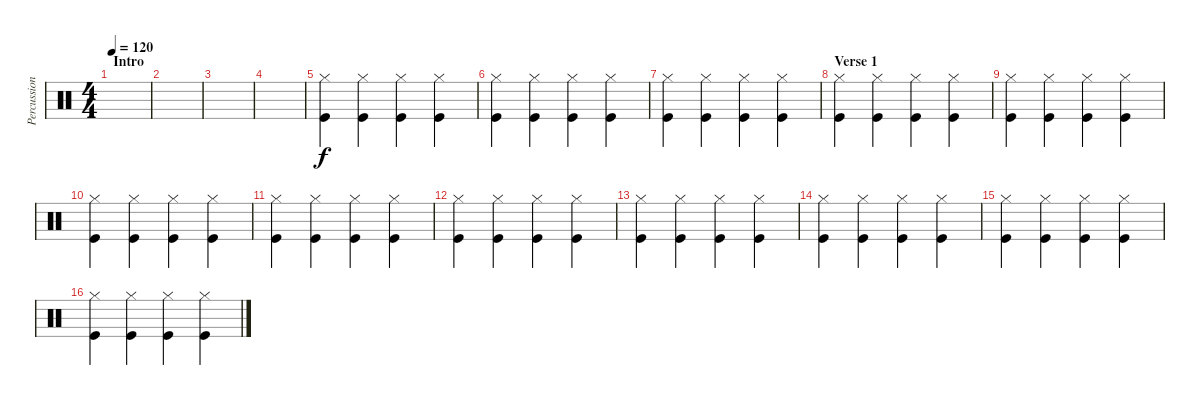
\track ("Percussion" "Percussion") {instrument percussion}
\staff {score}
\articulation defaults
\ts (4 4)
\section ("" "Intro")
\tempo 120
\clef neutral
\ks c
|
|
|
|
("Hi-Hat (closed)" "Kick (hit)").4 ("Hi-Hat (closed)" "Kick (hit)").4 ("Hi-Hat (closed)" "Kick (hit)").4 ("Hi-Hat (closed)" "Kick (hit)").4 |
("Kick (hit)" "Hi-Hat (closed)").4 ("Kick (hit)" "Hi-Hat (closed)").4 ("Kick (hit)" "Hi-Hat (closed)").4 ("Kick (hit)" "Hi-Hat (closed)").4 |
("Hi-Hat (closed)" "Kick (hit)").4 ("Hi-Hat (closed)" "Kick (hit)").4 ("Hi-Hat (closed)" "Kick (hit)").4 ("Hi-Hat (closed)" "Kick (hit)").4 |
\section ("" "Verse 1")
("Hi-Hat (closed)" "Kick (hit)").4 ("Hi-Hat (closed)" "Kick (hit)").4 ("Hi-Hat (closed)" "Kick (hit)").4 ("Hi-Hat (closed)" "Kick (hit)").4 |
("Hi-Hat (closed)" "Kick (hit)").4 ("Hi-Hat (closed)" "Kick (hit)").4 ("Hi-Hat (closed)" "Kick (hit)").4 ("Hi-Hat (closed)" "Kick (hit)").4 |
("Hi-Hat (closed)" "Kick (hit)").4 ("Hi-Hat (closed)" "Kick (hit)").4 ("Hi-Hat (closed)" "Kick (hit)").4 ("Hi-Hat (closed)" "Kick (hit)").4 |
("Hi-Hat (closed)" "Kick (hit)").4 ("Hi-Hat (closed)" "Kick (hit)").4 ("Hi-Hat (closed)" "Kick (hit)").4 ("Hi-Hat (closed)" "Kick (hit)").4 |
("Hi-Hat (closed)" "Kick (hit)").4 ("Hi-Hat (closed)" "Kick (hit)").4 ("Hi-Hat (closed)" "Kick (hit)").4 ("Hi-Hat (closed)" "Kick (hit)").4 |
("Kick (hit)" "Hi-Hat (closed)").4 ("Kick (hit)" "Hi-Hat (closed)").4 ("Kick (hit)" "Hi-Hat (closed)").4 ("Kick (hit)" "Hi-Hat (closed)").4 |
("Hi-Hat (closed)" "Kick (hit)").4 ("Hi-Hat (closed)" "Kick (hit)").4 ("Hi-Hat (closed)" "Kick (hit)").4 ("Hi-Hat (closed)" "Kick (hit)").4 |
("Hi-Hat (closed)" "Kick (hit)").4 ("Hi-Hat (closed)" "Kick (hit)").4 ("Hi-Hat (closed)" "Kick (hit)").4 ("Hi-Hat (closed)" "Kick (hit)").4 |
("Kick (hit)" "Hi-Hat (closed)").4 ("Kick (hit)" "Hi-Hat (closed)").4 ("Kick (hit)" "Hi-Hat (closed)").4 ("Kick (hit)" "Hi-Hat (closed)").4
